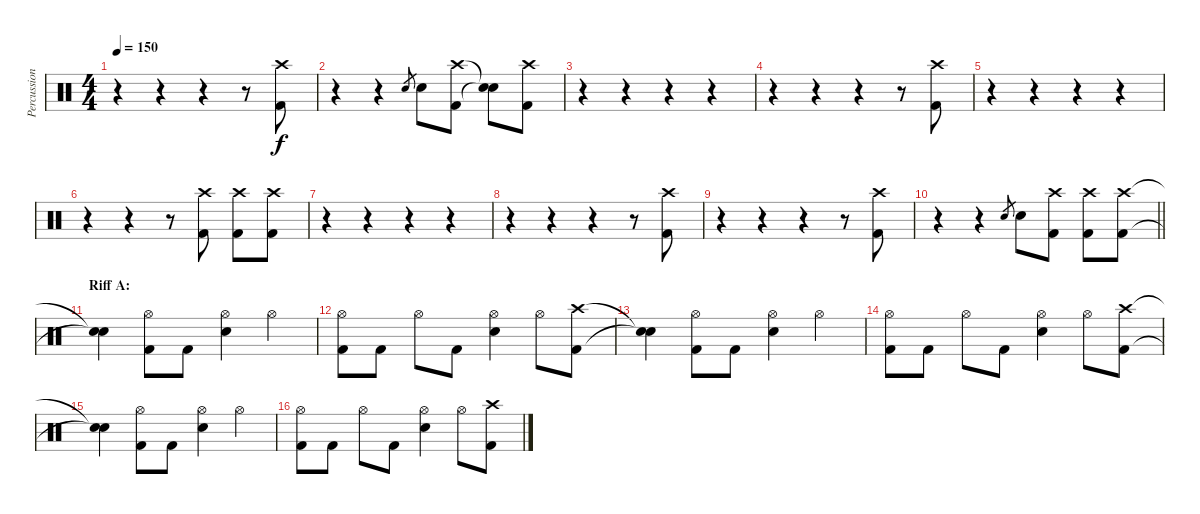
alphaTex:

\track ("Percussion" "Percussion") {instrument percussion}
\staff {score}
\articulation defaults
\ts (4 4)
\tempo 150
\clef neutral
\ks c
r.4{dy f} r.4 r.4 r.8 ("Crash high (hit)" "Kick (hit) 2").8 |
r.4 r.4 "Snare (hit) 2".8{gr} "Snare (hit) 2".8 ("Crash high (hit)" "Kick (hit) 2").8 ("Snare (hit)"{t} "Snare (hit)"{t}).8 ("Crash high (hit)" "Kick (hit) 2").8 |
r.4 r.4 r.4 r.4 |
r.4 r.4 r.4 r.8 ("Crash high (hit)" "Kick (hit) 2").8 |
r.4 r.4 r.4 r.4 |
r.4 r.4 r.8 ("Crash high (hit)" "Kick (hit) 2").8 ("Crash high (hit)" "Kick (hit) 2").8 ("Crash high (hit)" "Kick (hit) 2").8 |
r.4 r.4 r.4 r.4 |
r.4 r.4 r.4 r.8 ("Crash high (hit)" "Kick (hit) 2").8 |
r.4 r.4 r.4 r.8 ("Crash high (hit)" "Kick (hit) 2").8 |
\barLineRight lightlight
r.4 r.4 "Snare (hit) 2".8{gr} "Snare (hit) 2".8 ("Crash high (hit)" "Kick (hit) 2").8 ("Crash high (hit)" "Kick (hit) 2").8 ("Crash high (hit)" "Kick (hit) 2").8 |
\section ("" "Riff A:")
("Snare (hit)"{t} "Snare (hit)"{t}).4 ("Hi-Hat (open)" "Kick (hit) 2").8 "Kick (hit) 2".8 ("Hi-Hat (open)" "Snare (hit) 2").4 "Hi-Hat (open)".4 |
("Hi-Hat (open)" "Kick (hit) 2").8 "Kick (hit) 2".8 "Hi-Hat (open)".8 "Kick (hit) 2".8 ("Hi-Hat (open)" "Snare (hit) 2").4 "Hi-Hat (open)".8 ("Crash high (hit)" "Kick (hit) 2").8 |
("Snare (hit)"{t} "Snare (hit)"{t}).4 ("Hi-Hat (open)" "Kick (hit) 2").8 "Kick (hit) 2".8 ("Hi-Hat (open)" "Snare (hit) 2").4 "Hi-Hat (open)".4 |
("Hi-Hat (open)" "Kick (hit) 2").8 "Kick (hit) 2".8 "Hi-Hat (open)".8 "Kick (hit) 2".8 ("Hi-Hat (open)" "Snare (hit) 2").4 "Hi-Hat (open)".8 ("Crash high (hit)" "Kick (hit) 2").8 |
("Snare (hit)"{t} "Snare (hit)"{t}).4 ("Hi-Hat (open)" "Kick (hit) 2").8 "Kick (hit) 2".8 ("Hi-Hat (open)" "Snare (hit) 2").4 "Hi-Hat (open)".4 |
("Hi-Hat (open)" "Kick (hit) 2").8 "Kick (hit) 2".8 "Hi-Hat (open)".8 "Kick (hit) 2".8 ("Hi-Hat (open)" "Snare (hit) 2").4 "Hi-Hat (open)".8 ("Crash high (hit)" "Kick (hit) 2").8
